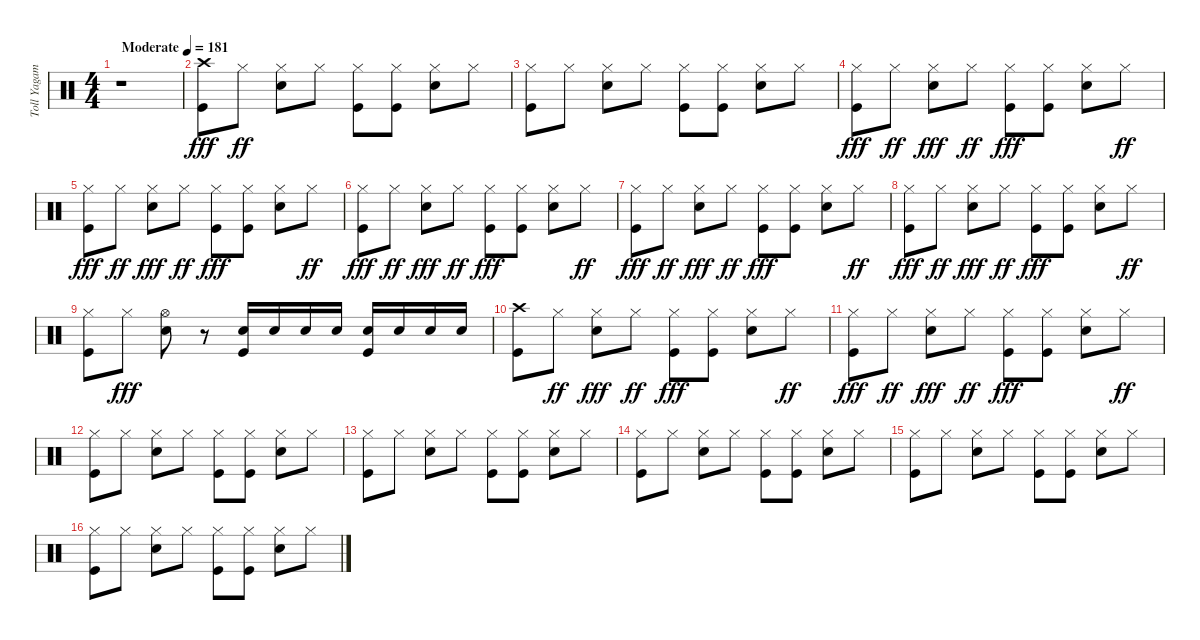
\track ("Toll Yagami" "Toll Yagam") {instrument percussion}
\staff {score}
\articulation defaults
\ts (4 4)
\tempo (181 "Moderate")
\clef neutral
\ks c
r.1{dy fff} |
("Kick (hit)" "Crash high (hit)").8 "Hi-Hat (closed)".8{dy ff} ("Snare (hit) 2" "Hi-Hat (closed)").8 "Hi-Hat (closed)".8 ("Kick (hit)" "Hi-Hat (closed)").8 ("Kick (hit)" "Hi-Hat (closed)").8 ("Snare (hit) 2" "Hi-Hat (closed)").8 "Hi-Hat (closed)".8 |
("Kick (hit)" "Hi-Hat (closed)").8 "Hi-Hat (closed)".8 ("Snare (hit) 2" "Hi-Hat (closed)").8 "Hi-Hat (closed)".8 ("Kick (hit)" "Hi-Hat (closed)").8 ("Kick (hit)" "Hi-Hat (closed)").8 ("Snare (hit) 2" "Hi-Hat (closed)").8 "Hi-Hat (closed)".8 |
("Hi-Hat (closed)" "Kick (hit)").8{dy fff} "Hi-Hat (closed)".8{dy ff} ("Hi-Hat (closed)" "Snare (hit) 2").8{dy fff} "Hi-Hat (closed)".8{dy ff} ("Hi-Hat (closed)" "Kick (hit)").8{dy fff} ("Hi-Hat (closed)" "Kick (hit)").8 ("Hi-Hat (closed)" "Snare (hit) 2").8 "Hi-Hat (closed)".8{dy ff} |
("Hi-Hat (closed)" "Kick (hit)").8{dy fff} "Hi-Hat (closed)".8{dy ff} ("Hi-Hat (closed)" "Snare (hit) 2").8{dy fff} "Hi-Hat (closed)".8{dy ff} ("Hi-Hat (closed)" "Kick (hit)").8{dy fff} ("Hi-Hat (closed)" "Kick (hit)").8 ("Hi-Hat (closed)" "Snare (hit) 2").8 "Hi-Hat (closed)".8{dy ff} |
("Hi-Hat (closed)" "Kick (hit)").8{dy fff} "Hi-Hat (closed)".8{dy ff} ("Hi-Hat (closed)" "Snare (hit) 2").8{dy fff} "Hi-Hat (closed)".8{dy ff} ("Hi-Hat (closed)" "Kick (hit)").8{dy fff} ("Hi-Hat (closed)" "Kick (hit)").8 ("Hi-Hat (closed)" "Snare (hit) 2").8 "Hi-Hat (closed)".8{dy ff} |
("Hi-Hat (closed)" "Kick (hit)").8{dy fff} "Hi-Hat (closed)".8{dy ff} ("Hi-Hat (closed)" "Snare (hit) 2").8{dy fff} "Hi-Hat (closed)".8{dy ff} ("Hi-Hat (closed)" "Kick (hit)").8{dy fff} ("Hi-Hat (closed)" "Kick (hit)").8 ("Hi-Hat (closed)" "Snare (hit) 2").8 "Hi-Hat (closed)".8{dy ff} |
("Hi-Hat (closed)" "Kick (hit)").8{dy fff} "Hi-Hat (closed)".8{dy ff} ("Hi-Hat (closed)" "Snare (hit) 2").8{dy fff} "Hi-Hat (closed)".8{dy ff} ("Hi-Hat (closed)" "Kick (hit)").8{dy fff} ("Hi-Hat (closed)" "Kick (hit)").8 ("Hi-Hat (closed)" "Snare (hit) 2").8 "Hi-Hat (closed)".8{dy ff} |
("Kick (hit)" "Hi-Hat (closed)").8 "Hi-Hat (closed)".8{dy fff} ("Hi-Hat (open)" "Snare (hit) 2").8 r.8 ("Kick (hit)" "Snare (hit) 2").16 "Snare (hit) 2".16 "Snare (hit) 2".16 "Snare (hit) 2".16 ("Kick (hit)" "Snare (hit) 2").16 "Snare (hit) 2".16 "Snare (hit) 2".16 "Snare (hit) 2".16 |
("Kick (hit)" "Crash high (hit)").8 "Hi-Hat (closed)".8{dy ff} ("Hi-Hat (closed)" "Snare (hit) 2").8{dy fff} "Hi-Hat (closed)".8{dy ff} ("Hi-Hat (closed)" "Kick (hit)").8{dy fff} ("Hi-Hat (closed)" "Kick (hit)").8 ("Hi-Hat (closed)" "Snare (hit) 2").8 "Hi-Hat (closed)".8{dy ff} |
("Hi-Hat (closed)" "Kick (hit)").8{dy fff} "Hi-Hat (closed)".8{dy ff} ("Hi-Hat (closed)" "Snare (hit) 2").8{dy fff} "Hi-Hat (closed)".8{dy ff} ("Hi-Hat (closed)" "Kick (hit)").8{dy fff} ("Hi-Hat (closed)" "Kick (hit)").8 ("Hi-Hat (closed)" "Snare (hit) 2").8 "Hi-Hat (closed)".8{dy ff} |
("Kick (hit)" "Hi-Hat (closed)").8 "Hi-Hat (closed)".8 ("Snare (hit) 2" "Hi-Hat (closed)").8 "Hi-Hat (closed)".8 ("Kick (hit)" "Hi-Hat (closed)").8 ("Kick (hit)" "Hi-Hat (closed)").8 ("Snare (hit) 2" "Hi-Hat (closed)").8 "Hi-Hat (closed)".8 |
("Kick (hit)" "Hi-Hat (closed)").8 "Hi-Hat (closed)".8 ("Snare (hit) 2" "Hi-Hat (closed)").8 "Hi-Hat (closed)".8 ("Kick (hit)" "Hi-Hat (closed)").8 ("Kick (hit)" "Hi-Hat (closed)").8 ("Snare (hit) 2" "Hi-Hat (closed)").8 "Hi-Hat (closed)".8 |
("Kick (hit)" "Hi-Hat (closed)").8 "Hi-Hat (closed)".8 ("Snare (hit) 2" "Hi-Hat (closed)").8 "Hi-Hat (closed)".8 ("Kick (hit)" "Hi-Hat (closed)").8 ("Kick (hit)" "Hi-Hat (closed)").8 ("Snare (hit) 2" "Hi-Hat (closed)").8 "Hi-Hat (closed)".8 |
("Kick (hit)" "Hi-Hat (closed)").8 "Hi-Hat (closed)".8 ("Snare (hit) 2" "Hi-Hat (closed)").8 "Hi-Hat (closed)".8 ("Kick (hit)" "Hi-Hat (closed)").8 ("Kick (hit)" "Hi-Hat (closed)").8 ("Snare (hit) 2" "Hi-Hat (closed)").8 "Hi-Hat (closed)".8 |
("Kick (hit)" "Hi-Hat (closed)").8 "Hi-Hat (closed)".8 ("Snare (hit) 2" "Hi-Hat (closed)").8 "Hi-Hat (closed)".8 ("Kick (hit)" "Hi-Hat (closed)").8 ("Kick (hit)" "Hi-Hat (closed)").8 ("Snare (hit) 2" "Hi-Hat (closed)").8 "Hi-Hat (closed)".8
